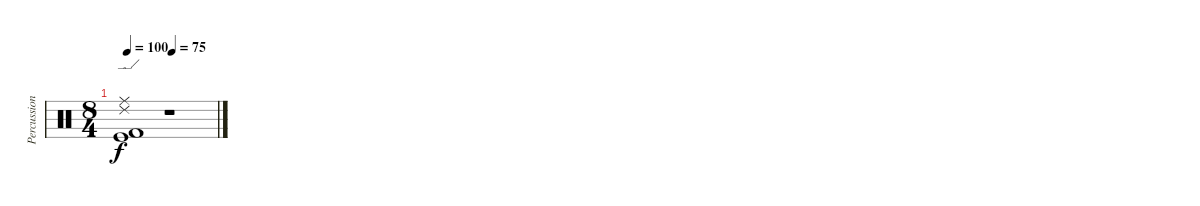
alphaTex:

\track ("Percussion" "Percussion") {instrument percussion}
\staff {score}
\articulation defaults
\ts (8 4)
\tempo 100
\tempo (75 0.5)
\clef neutral
\ks c
("Ride (edge) 2" "Ride (middle)" "Kick (hit)" "Kick (hit) 2").1{dy f} r.1
